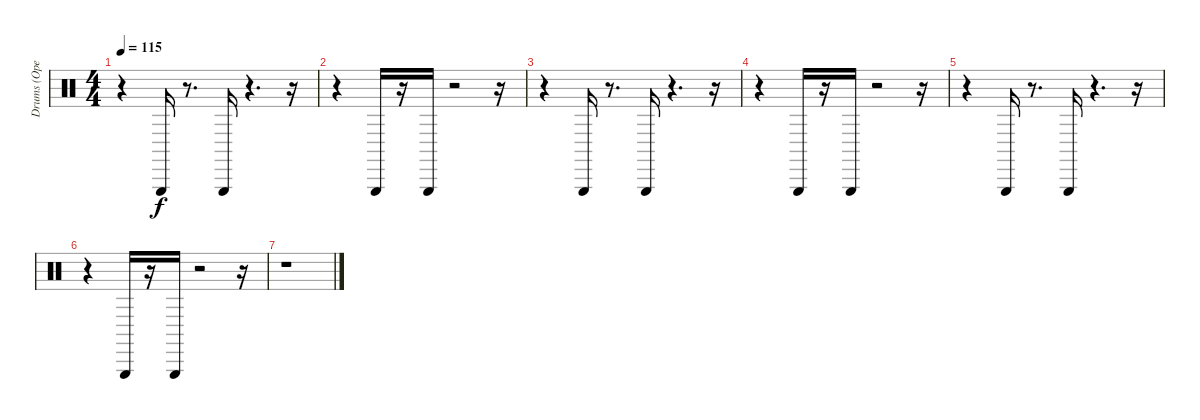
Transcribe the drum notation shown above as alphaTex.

\track ("Drums (Open triangle" "Drums (Ope") {instrument percussion}
\staff {score}
\articulation defaults
\ts (4 4)
\tempo 115
\clef neutral
\ks c
r.4{dy f} "Triangle (hit)".16 r.8{d} "Triangle (hit)".16 r.4{d} r.16 |
r.4 "Triangle (hit)".16 r.16 "Triangle (hit)".16 r.2 r.16 |
r.4 "Triangle (hit)".16 r.8{d} "Triangle (hit)".16 r.4{d} r.16 |
r.4 "Triangle (hit)".16 r.16 "Triangle (hit)".16 r.2 r.16 |
r.4 "Triangle (hit)".16 r.8{d} "Triangle (hit)".16 r.4{d} r.16 |
r.4 "Triangle (hit)".16 r.16 "Triangle (hit)".16 r.2 r.16 |
r.1
